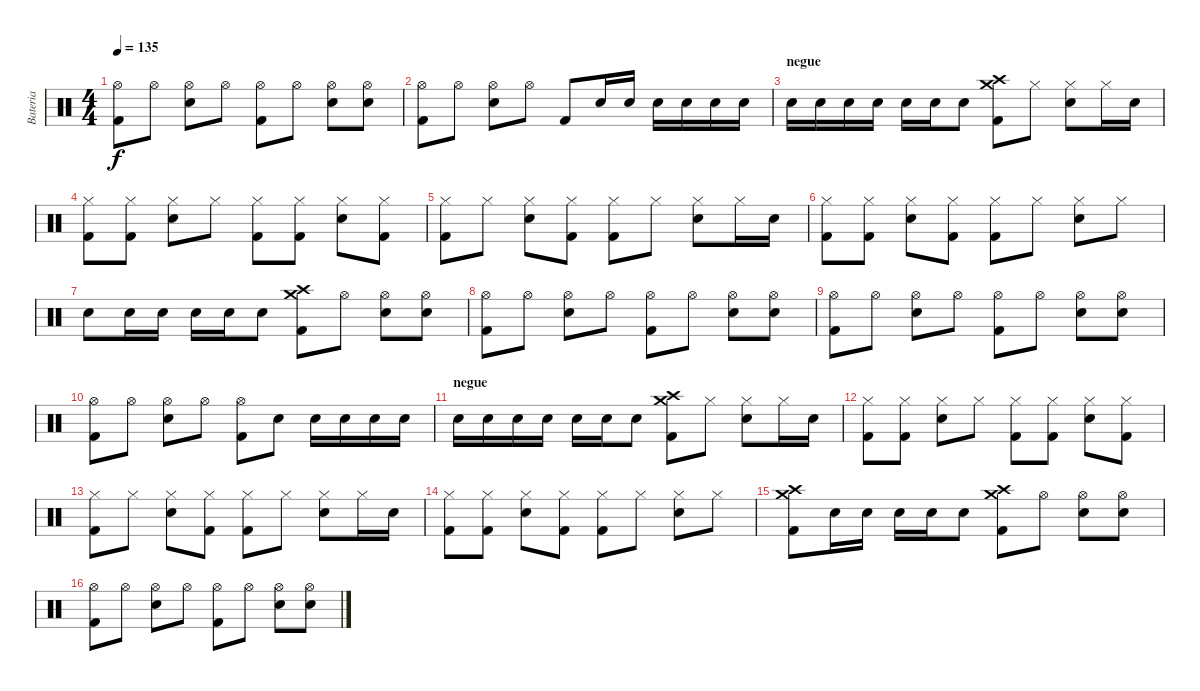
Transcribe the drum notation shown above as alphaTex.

\track ("Bateria" "Bateria") {instrument percussion}
\staff {score}
\articulation defaults
\ts (4 4)
\tempo 135
\clef neutral
\ks c
("Hi-Hat (open)" "Kick (hit) 2").8{dy f} "Hi-Hat (open)".8 ("Hi-Hat (open)" "Electric Snare (hit)").8 "Hi-Hat (open)".8 ("Hi-Hat (open)" "Kick (hit) 2").8 "Hi-Hat (open)".8 ("Hi-Hat (open)" "Electric Snare (hit)").8 ("Hi-Hat (open)" "Electric Snare (hit)").8 |
("Hi-Hat (open)" "Kick (hit) 2").8 "Hi-Hat (open)".8 ("Hi-Hat (open)" "Electric Snare (hit)").8 "Hi-Hat (open)".8 "Kick (hit) 2".8 "Electric Snare (hit)".16 "Electric Snare (hit)".16 "Electric Snare (hit)".16 "Electric Snare (hit)".16 "Electric Snare (hit)".16 "Electric Snare (hit)".16 |
\section ("" "negue")
"Electric Snare (hit)".16 "Electric Snare (hit)".16 "Electric Snare (hit)".16 "Electric Snare (hit)".16 "Electric Snare (hit)".16 "Electric Snare (hit)".16 "Electric Snare (hit)".8 ("Crash medium (hit)" "Crash high (hit)" "Kick (hit) 2").8 "Hi-Hat (closed)".8 ("Hi-Hat (closed)" "Electric Snare (hit)").8 "Hi-Hat (closed)".16 "Electric Snare (hit)".16 |
("Hi-Hat (closed)" "Kick (hit) 2").8 ("Hi-Hat (closed)" "Kick (hit) 2").8 ("Hi-Hat (closed)" "Electric Snare (hit)").8 "Hi-Hat (closed)".8 ("Hi-Hat (closed)" "Kick (hit) 2").8 ("Hi-Hat (closed)" "Kick (hit) 2").8 ("Hi-Hat (closed)" "Electric Snare (hit)").8 ("Hi-Hat (closed)" "Kick (hit) 2").8 |
("Hi-Hat (closed)" "Kick (hit) 2").8 "Hi-Hat (closed)".8 ("Hi-Hat (closed)" "Electric Snare (hit)").8 ("Hi-Hat (closed)" "Kick (hit) 2").8 ("Hi-Hat (closed)" "Kick (hit) 2").8 "Hi-Hat (closed)".8 ("Hi-Hat (closed)" "Electric Snare (hit)").8 "Hi-Hat (closed)".16 "Electric Snare (hit)".16 |
("Hi-Hat (closed)" "Kick (hit) 2").8 ("Hi-Hat (closed)" "Kick (hit) 2").8 ("Hi-Hat (closed)" "Electric Snare (hit)").8 ("Hi-Hat (closed)" "Kick (hit) 2").8 ("Hi-Hat (closed)" "Kick (hit) 2").8 "Hi-Hat (closed)".8 ("Hi-Hat (closed)" "Electric Snare (hit)").8 "Hi-Hat (closed)".8 |
"Electric Snare (hit)".8 "Electric Snare (hit)".16 "Electric Snare (hit)".16 "Electric Snare (hit)".16 "Electric Snare (hit)".16 "Electric Snare (hit)".8 ("Crash medium (hit)" "Crash high (hit)" "Kick (hit) 2").8 "Hi-Hat (open)".8 ("Hi-Hat (open)" "Electric Snare (hit)").8 ("Hi-Hat (open)" "Electric Snare (hit)").8 |
("Hi-Hat (open)" "Kick (hit) 2").8 "Hi-Hat (open)".8 ("Hi-Hat (open)" "Electric Snare (hit)").8 "Hi-Hat (open)".8 ("Hi-Hat (open)" "Kick (hit) 2").8 "Hi-Hat (open)".8 ("Hi-Hat (open)" "Electric Snare (hit)").8 ("Hi-Hat (open)" "Electric Snare (hit)").8 |
("Hi-Hat (open)" "Kick (hit) 2").8 "Hi-Hat (open)".8 ("Hi-Hat (open)" "Electric Snare (hit)").8 "Hi-Hat (open)".8 ("Hi-Hat (open)" "Kick (hit) 2").8 "Hi-Hat (open)".8 ("Hi-Hat (open)" "Electric Snare (hit)").8 ("Hi-Hat (open)" "Electric Snare (hit)").8 |
("Hi-Hat (open)" "Kick (hit) 2").8 "Hi-Hat (open)".8 ("Hi-Hat (open)" "Electric Snare (hit)").8 "Hi-Hat (open)".8 ("Hi-Hat (open)" "Kick (hit) 2").8 "Electric Snare (hit)".8 "Electric Snare (hit)".16 "Electric Snare (hit)".16 "Electric Snare (hit)".16 "Electric Snare (hit)".16 |
\section ("" "negue")
"Electric Snare (hit)".16 "Electric Snare (hit)".16 "Electric Snare (hit)".16 "Electric Snare (hit)".16 "Electric Snare (hit)".16 "Electric Snare (hit)".16 "Electric Snare (hit)".8 ("Crash medium (hit)" "Crash high (hit)" "Kick (hit) 2").8 "Hi-Hat (closed)".8 ("Hi-Hat (closed)" "Electric Snare (hit)").8 "Hi-Hat (closed)".16 "Electric Snare (hit)".16 |
("Hi-Hat (closed)" "Kick (hit) 2").8 ("Hi-Hat (closed)" "Kick (hit) 2").8 ("Hi-Hat (closed)" "Electric Snare (hit)").8 "Hi-Hat (closed)".8 ("Hi-Hat (closed)" "Kick (hit) 2").8 ("Hi-Hat (closed)" "Kick (hit) 2").8 ("Hi-Hat (closed)" "Electric Snare (hit)").8 ("Hi-Hat (closed)" "Kick (hit) 2").8 |
("Hi-Hat (closed)" "Kick (hit) 2").8 "Hi-Hat (closed)".8 ("Hi-Hat (closed)" "Electric Snare (hit)").8 ("Hi-Hat (closed)" "Kick (hit) 2").8 ("Hi-Hat (closed)" "Kick (hit) 2").8 "Hi-Hat (closed)".8 ("Hi-Hat (closed)" "Electric Snare (hit)").8 "Hi-Hat (closed)".16 "Electric Snare (hit)".16 |
("Hi-Hat (closed)" "Kick (hit) 2").8 ("Hi-Hat (closed)" "Kick (hit) 2").8 ("Hi-Hat (closed)" "Electric Snare (hit)").8 ("Hi-Hat (closed)" "Kick (hit) 2").8 ("Hi-Hat (closed)" "Kick (hit) 2").8 "Hi-Hat (closed)".8 ("Hi-Hat (closed)" "Electric Snare (hit)").8 "Hi-Hat (closed)".8 |
("Crash medium (hit)" "Crash high (hit)" "Kick (hit) 2").8 "Electric Snare (hit)".16 "Electric Snare (hit)".16 "Electric Snare (hit)".16 "Electric Snare (hit)".16 "Electric Snare (hit)".8 ("Crash medium (hit)" "Crash high (hit)" "Kick (hit) 2").8 "Hi-Hat (open)".8 ("Hi-Hat (open)" "Electric Snare (hit)").8 ("Hi-Hat (open)" "Electric Snare (hit)").8 |
("Hi-Hat (open)" "Kick (hit) 2").8 "Hi-Hat (open)".8 ("Hi-Hat (open)" "Electric Snare (hit)").8 "Hi-Hat (open)".8 ("Hi-Hat (open)" "Kick (hit) 2").8 "Hi-Hat (open)".8 ("Hi-Hat (open)" "Electric Snare (hit)").8 ("Hi-Hat (open)" "Electric Snare (hit)").8
